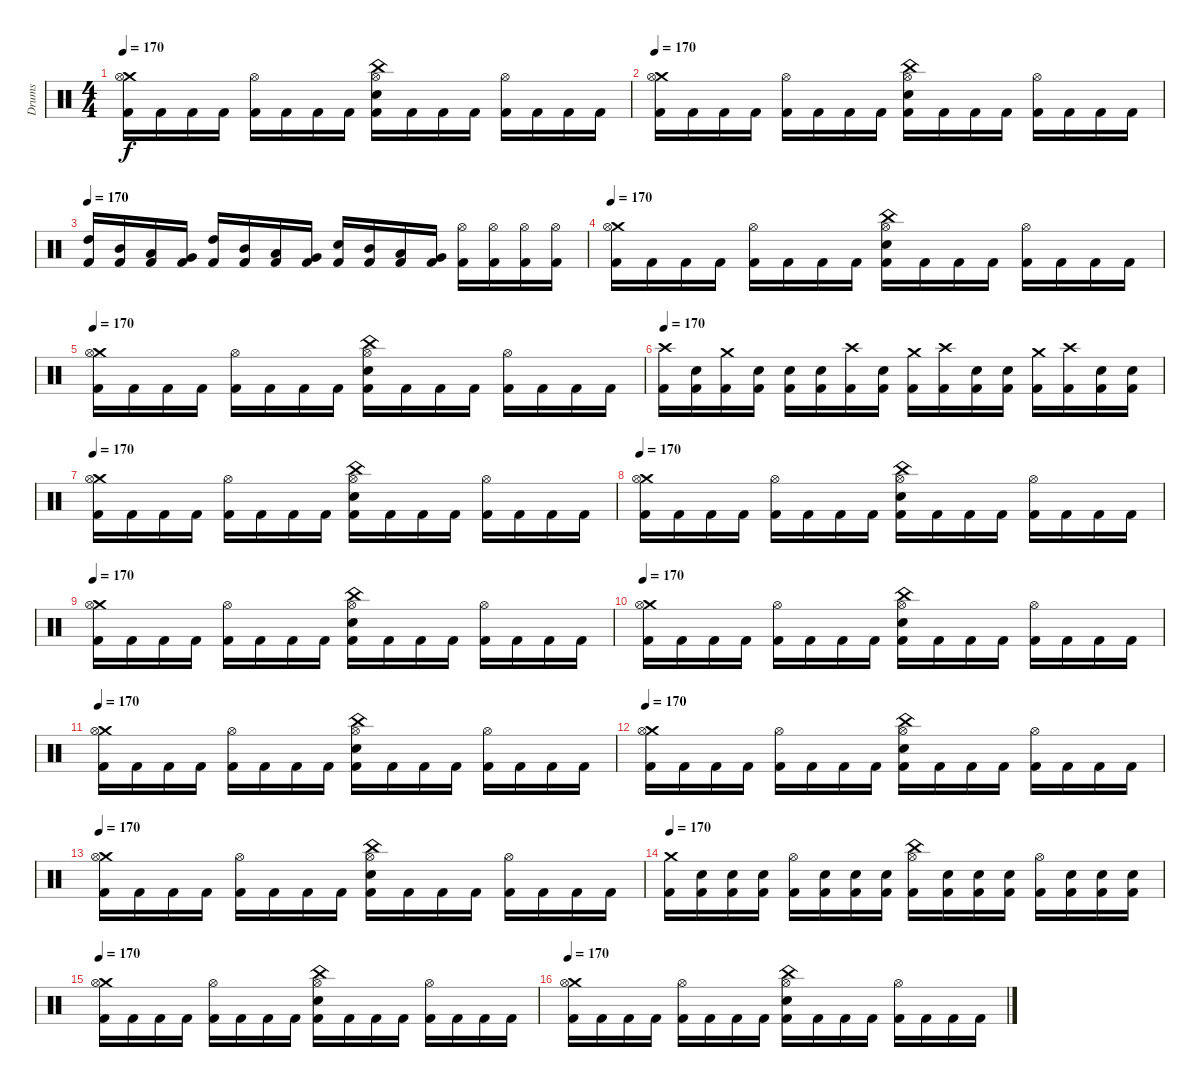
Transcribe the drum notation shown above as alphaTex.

\track ("Drums" "Drums") {instrument percussion}
\staff {score}
\articulation defaults
\ts (4 4)
\tempo 170
\clef neutral
\ks c
("Crash medium (hit)" "Hi-Hat (open)" "Kick (hit) 2").16{dy f} "Kick (hit) 2".16 "Kick (hit) 2".16 "Kick (hit) 2".16 ("Hi-Hat (open)" "Kick (hit) 2").16 "Kick (hit) 2".16 "Kick (hit) 2".16 "Kick (hit) 2".16 ("China (hit)" "Hi-Hat (open)" "Electric Snare (hit)" "Kick (hit) 2").16 "Kick (hit) 2".16 "Kick (hit) 2".16 "Kick (hit) 2".16 ("Hi-Hat (open)" "Kick (hit) 2").16 "Kick (hit) 2".16 "Kick (hit) 2".16 "Kick (hit) 2".16 |
\tempo 170
("Crash medium (hit)" "Hi-Hat (open)" "Kick (hit) 2").16 "Kick (hit) 2".16 "Kick (hit) 2".16 "Kick (hit) 2".16 ("Hi-Hat (open)" "Kick (hit) 2").16 "Kick (hit) 2".16 "Kick (hit) 2".16 "Kick (hit) 2".16 ("China (hit)" "Hi-Hat (open)" "Electric Snare (hit)" "Kick (hit) 2").16 "Kick (hit) 2".16 "Kick (hit) 2".16 "Kick (hit) 2".16 ("Hi-Hat (open)" "Kick (hit) 2").16 "Kick (hit) 2".16 "Kick (hit) 2".16 "Kick (hit) 2".16 |
\tempo 170
("High Tom (hit)" "Kick (hit) 2").16 ("Mid Tom (hit)" "Kick (hit) 2").16 ("Low Tom (hit)" "Kick (hit) 2").16 ("Very Low Tom (hit)" "Kick (hit) 2").16 ("High Tom (hit)" "Kick (hit) 2").16 ("Mid Tom (hit)" "Kick (hit) 2").16 ("Low Tom (hit)" "Kick (hit) 2").16 ("Very Low Tom (hit)" "Kick (hit) 2").16 ("Electric Snare (hit)" "Kick (hit) 2").16 ("Mid Tom (hit)" "Kick (hit) 2").16 ("Low Tom (hit)" "Kick (hit) 2").16 ("Very Low Tom (hit)" "Kick (hit) 2").16 ("Hi-Hat (open)" "Kick (hit) 2").16 ("Hi-Hat (open)" "Kick (hit) 2").16 ("Hi-Hat (open)" "Kick (hit) 2").16 ("Hi-Hat (open)" "Kick (hit) 2").16 |
\tempo 170
("Crash medium (hit)" "Hi-Hat (open)" "Kick (hit) 2").16 "Kick (hit) 2".16 "Kick (hit) 2".16 "Kick (hit) 2".16 ("Hi-Hat (open)" "Kick (hit) 2").16 "Kick (hit) 2".16 "Kick (hit) 2".16 "Kick (hit) 2".16 ("China (hit)" "Hi-Hat (open)" "Electric Snare (hit)" "Kick (hit) 2").16 "Kick (hit) 2".16 "Kick (hit) 2".16 "Kick (hit) 2".16 ("Hi-Hat (open)" "Kick (hit) 2").16 "Kick (hit) 2".16 "Kick (hit) 2".16 "Kick (hit) 2".16 |
\tempo 170
("Crash medium (hit)" "Hi-Hat (open)" "Kick (hit) 2").16 "Kick (hit) 2".16 "Kick (hit) 2".16 "Kick (hit) 2".16 ("Hi-Hat (open)" "Kick (hit) 2").16 "Kick (hit) 2".16 "Kick (hit) 2".16 "Kick (hit) 2".16 ("China (hit)" "Hi-Hat (open)" "Electric Snare (hit)" "Kick (hit) 2").16 "Kick (hit) 2".16 "Kick (hit) 2".16 "Kick (hit) 2".16 ("Hi-Hat (open)" "Kick (hit) 2").16 "Kick (hit) 2".16 "Kick (hit) 2".16 "Kick (hit) 2".16 |
\tempo 170
("Crash high (hit)" "Kick (hit) 2").16 ("Electric Snare (hit)" "Kick (hit) 2").16 ("Crash medium (hit)" "Kick (hit) 2").16 ("Electric Snare (hit)" "Kick (hit) 2").16 ("Electric Snare (hit)" "Kick (hit) 2").16 ("Electric Snare (hit)" "Kick (hit) 2").16 ("Crash high (hit)" "Kick (hit) 2").16 ("Electric Snare (hit)" "Kick (hit) 2").16 ("Crash medium (hit)" "Kick (hit) 2").16 ("Crash high (hit)" "Kick (hit) 2").16 ("Electric Snare (hit)" "Kick (hit) 2").16 ("Electric Snare (hit)" "Kick (hit) 2").16 ("Crash medium (hit)" "Kick (hit) 2").16 ("Crash high (hit)" "Kick (hit) 2").16 ("Electric Snare (hit)" "Kick (hit) 2").16 ("Electric Snare (hit)" "Kick (hit) 2").16 |
\tempo 170
("Crash medium (hit)" "Hi-Hat (open)" "Kick (hit) 2").16 "Kick (hit) 2".16 "Kick (hit) 2".16 "Kick (hit) 2".16 ("Hi-Hat (open)" "Kick (hit) 2").16 "Kick (hit) 2".16 "Kick (hit) 2".16 "Kick (hit) 2".16 ("China (hit)" "Hi-Hat (open)" "Electric Snare (hit)" "Kick (hit) 2").16 "Kick (hit) 2".16 "Kick (hit) 2".16 "Kick (hit) 2".16 ("Hi-Hat (open)" "Kick (hit) 2").16 "Kick (hit) 2".16 "Kick (hit) 2".16 "Kick (hit) 2".16 |
\tempo 170
("Crash medium (hit)" "Hi-Hat (open)" "Kick (hit) 2").16 "Kick (hit) 2".16 "Kick (hit) 2".16 "Kick (hit) 2".16 ("Hi-Hat (open)" "Kick (hit) 2").16 "Kick (hit) 2".16 "Kick (hit) 2".16 "Kick (hit) 2".16 ("China (hit)" "Hi-Hat (open)" "Electric Snare (hit)" "Kick (hit) 2").16 "Kick (hit) 2".16 "Kick (hit) 2".16 "Kick (hit) 2".16 ("Hi-Hat (open)" "Kick (hit) 2").16 "Kick (hit) 2".16 "Kick (hit) 2".16 "Kick (hit) 2".16 |
\tempo 170
("Crash medium (hit)" "Hi-Hat (open)" "Kick (hit) 2").16 "Kick (hit) 2".16 "Kick (hit) 2".16 "Kick (hit) 2".16 ("Hi-Hat (open)" "Kick (hit) 2").16 "Kick (hit) 2".16 "Kick (hit) 2".16 "Kick (hit) 2".16 ("China (hit)" "Hi-Hat (open)" "Electric Snare (hit)" "Kick (hit) 2").16 "Kick (hit) 2".16 "Kick (hit) 2".16 "Kick (hit) 2".16 ("Hi-Hat (open)" "Kick (hit) 2").16 "Kick (hit) 2".16 "Kick (hit) 2".16 "Kick (hit) 2".16 |
\tempo 170
("Crash medium (hit)" "Hi-Hat (open)" "Kick (hit) 2").16 "Kick (hit) 2".16 "Kick (hit) 2".16 "Kick (hit) 2".16 ("Hi-Hat (open)" "Kick (hit) 2").16 "Kick (hit) 2".16 "Kick (hit) 2".16 "Kick (hit) 2".16 ("China (hit)" "Hi-Hat (open)" "Electric Snare (hit)" "Kick (hit) 2").16 "Kick (hit) 2".16 "Kick (hit) 2".16 "Kick (hit) 2".16 ("Hi-Hat (open)" "Kick (hit) 2").16 "Kick (hit) 2".16 "Kick (hit) 2".16 "Kick (hit) 2".16 |
\tempo 170
("Crash medium (hit)" "Hi-Hat (open)" "Kick (hit) 2").16 "Kick (hit) 2".16 "Kick (hit) 2".16 "Kick (hit) 2".16 ("Hi-Hat (open)" "Kick (hit) 2").16 "Kick (hit) 2".16 "Kick (hit) 2".16 "Kick (hit) 2".16 ("China (hit)" "Hi-Hat (open)" "Electric Snare (hit)" "Kick (hit) 2").16 "Kick (hit) 2".16 "Kick (hit) 2".16 "Kick (hit) 2".16 ("Hi-Hat (open)" "Kick (hit) 2").16 "Kick (hit) 2".16 "Kick (hit) 2".16 "Kick (hit) 2".16 |
\tempo 170
("Crash medium (hit)" "Hi-Hat (open)" "Kick (hit) 2").16 "Kick (hit) 2".16 "Kick (hit) 2".16 "Kick (hit) 2".16 ("Hi-Hat (open)" "Kick (hit) 2").16 "Kick (hit) 2".16 "Kick (hit) 2".16 "Kick (hit) 2".16 ("China (hit)" "Hi-Hat (open)" "Electric Snare (hit)" "Kick (hit) 2").16 "Kick (hit) 2".16 "Kick (hit) 2".16 "Kick (hit) 2".16 ("Hi-Hat (open)" "Kick (hit) 2").16 "Kick (hit) 2".16 "Kick (hit) 2".16 "Kick (hit) 2".16 |
\tempo 170
("Crash medium (hit)" "Hi-Hat (open)" "Kick (hit) 2").16 "Kick (hit) 2".16 "Kick (hit) 2".16 "Kick (hit) 2".16 ("Hi-Hat (open)" "Kick (hit) 2").16 "Kick (hit) 2".16 "Kick (hit) 2".16 "Kick (hit) 2".16 ("China (hit)" "Hi-Hat (open)" "Electric Snare (hit)" "Kick (hit) 2").16 "Kick (hit) 2".16 "Kick (hit) 2".16 "Kick (hit) 2".16 ("Hi-Hat (open)" "Kick (hit) 2").16 "Kick (hit) 2".16 "Kick (hit) 2".16 "Kick (hit) 2".16 |
\tempo 170
("Crash medium (hit)" "Kick (hit) 2").16 ("Electric Snare (hit)" "Kick (hit) 2").16 ("Electric Snare (hit)" "Kick (hit) 2").16 ("Electric Snare (hit)" "Kick (hit) 2").16 ("Hi-Hat (open)" "Kick (hit) 2").16 ("Electric Snare (hit)" "Kick (hit) 2").16 ("Electric Snare (hit)" "Kick (hit) 2").16 ("Electric Snare (hit)" "Kick (hit) 2").16 ("China (hit)" "Hi-Hat (open)" "Kick (hit) 2").16 ("Electric Snare (hit)" "Kick (hit) 2").16 ("Electric Snare (hit)" "Kick (hit) 2").16 ("Electric Snare (hit)" "Kick (hit) 2").16 ("Hi-Hat (open)" "Kick (hit) 2").16 ("Electric Snare (hit)" "Kick (hit) 2").16 ("Electric Snare (hit)" "Kick (hit) 2").16 ("Electric Snare (hit)" "Kick (hit) 2").16 |
\tempo 170
("Crash medium (hit)" "Hi-Hat (open)" "Kick (hit) 2").16 "Kick (hit) 2".16 "Kick (hit) 2".16 "Kick (hit) 2".16 ("Hi-Hat (open)" "Kick (hit) 2").16 "Kick (hit) 2".16 "Kick (hit) 2".16 "Kick (hit) 2".16 ("China (hit)" "Hi-Hat (open)" "Electric Snare (hit)" "Kick (hit) 2").16 "Kick (hit) 2".16 "Kick (hit) 2".16 "Kick (hit) 2".16 ("Hi-Hat (open)" "Kick (hit) 2").16 "Kick (hit) 2".16 "Kick (hit) 2".16 "Kick (hit) 2".16 |
\tempo 170
("Crash medium (hit)" "Hi-Hat (open)" "Kick (hit) 2").16 "Kick (hit) 2".16 "Kick (hit) 2".16 "Kick (hit) 2".16 ("Hi-Hat (open)" "Kick (hit) 2").16 "Kick (hit) 2".16 "Kick (hit) 2".16 "Kick (hit) 2".16 ("China (hit)" "Hi-Hat (open)" "Electric Snare (hit)" "Kick (hit) 2").16 "Kick (hit) 2".16 "Kick (hit) 2".16 "Kick (hit) 2".16 ("Hi-Hat (open)" "Kick (hit) 2").16 "Kick (hit) 2".16 "Kick (hit) 2".16 "Kick (hit) 2".16
